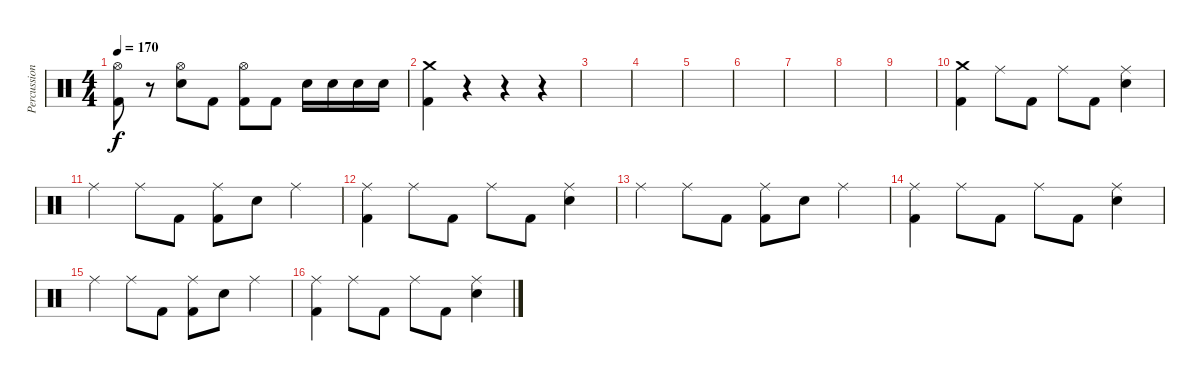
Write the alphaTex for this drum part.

\track ("Percussion" "Percussion") {instrument percussion}
\staff {score}
\articulation defaults
\ts (4 4)
\tempo 170
\clef neutral
\ks c
("Hi-Hat (open)" "Kick (hit) 2").8{dy f} r.8 ("Hi-Hat (open)" "Electric Snare (hit)").8 "Kick (hit) 2".8 ("Hi-Hat (open)" "Kick (hit) 2").8 "Kick (hit) 2".8 "Electric Snare (hit)".16 "Electric Snare (hit)".16 "Electric Snare (hit)".16 "Electric Snare (hit)".16 |
("Crash medium (hit)" "Kick (hit) 2").4 r.4 r.4 r.4 |
|
|
|
|
|
|
|
("Crash medium (hit)" "Kick (hit) 2").4{volume 9} "Ride (middle)".8 "Kick (hit) 2".8 "Ride (middle)".8 "Kick (hit) 2".8 ("Ride (middle)" "Electric Snare (hit)").4 |
"Ride (middle)".4 "Ride (middle)".8 "Kick (hit) 2".8 ("Ride (middle)" "Kick (hit) 2").8 "Electric Snare (hit)".8 "Ride (middle)".4 |
("Ride (middle)" "Kick (hit) 2").4 "Ride (middle)".8 "Kick (hit) 2".8 "Ride (middle)".8 "Kick (hit) 2".8 ("Ride (middle)" "Electric Snare (hit)").4 |
"Ride (middle)".4 "Ride (middle)".8 "Kick (hit) 2".8 ("Ride (middle)" "Kick (hit) 2").8 "Electric Snare (hit)".8 "Ride (middle)".4 |
("Ride (middle)" "Kick (hit) 2").4 "Ride (middle)".8 "Kick (hit) 2".8 "Ride (middle)".8 "Kick (hit) 2".8 ("Ride (middle)" "Electric Snare (hit)").4 |
"Ride (middle)".4 "Ride (middle)".8 "Kick (hit) 2".8 ("Ride (middle)" "Kick (hit) 2").8 "Electric Snare (hit)".8 "Ride (middle)".4 |
("Ride (middle)" "Kick (hit) 2").4 "Ride (middle)".8 "Kick (hit) 2".8 "Ride (middle)".8 "Kick (hit) 2".8 ("Ride (middle)" "Electric Snare (hit)").4
